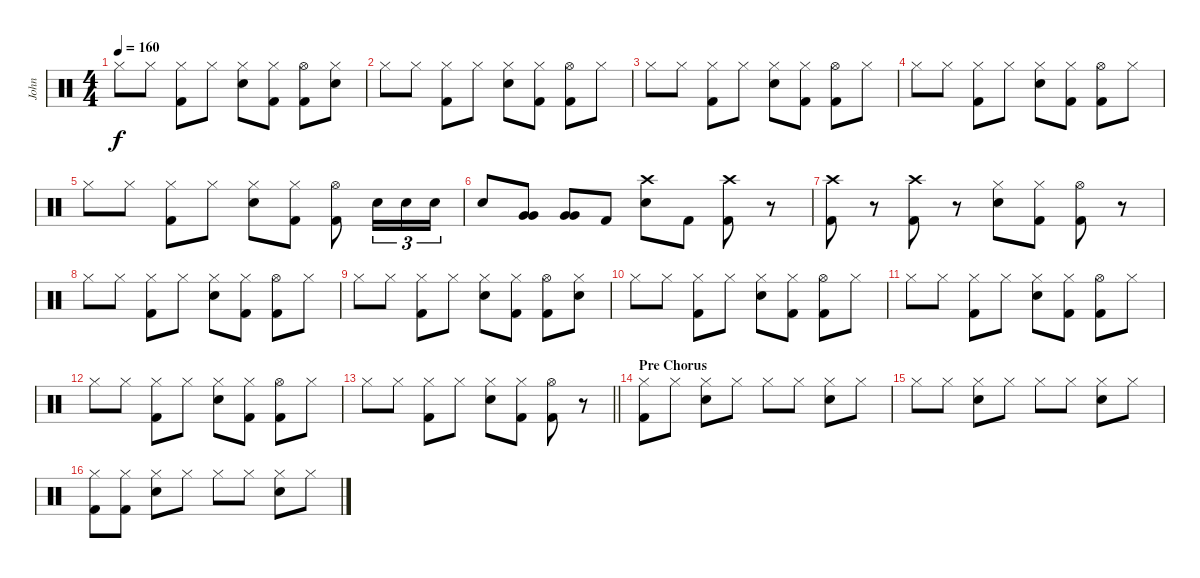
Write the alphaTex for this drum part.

\track ("John" "John") {instrument percussion}
\staff {score}
\articulation defaults
\ts (4 4)
\tempo 160
\clef neutral
\ks c "Hi-Hat (closed)".8{dy f} "Hi-Hat (closed)".8
("Hi-Hat (closed)" "Kick (hit) 2").8 "Hi-Hat (closed)".8 ("Hi-Hat (closed)" "Snare (hit) 2").8 ("Hi-Hat (closed)" "Kick (hit) 2").8 ("Hi-Hat (open)" "Kick (hit) 2").8 ("Hi-Hat (closed)" "Snare (hit) 2").8 |
"Hi-Hat (closed)".8 "Hi-Hat (closed)".8 ("Hi-Hat (closed)" "Kick (hit) 2").8 "Hi-Hat (closed)".8 ("Hi-Hat (closed)" "Snare (hit) 2").8 ("Hi-Hat (closed)" "Kick (hit) 2").8 ("Hi-Hat (open)" "Kick (hit) 2").8 "Hi-Hat (closed)".8 |
"Hi-Hat (closed)".8 "Hi-Hat (closed)".8 ("Hi-Hat (closed)" "Kick (hit) 2").8 "Hi-Hat (closed)".8 ("Hi-Hat (closed)" "Snare (hit) 2").8 ("Hi-Hat (closed)" "Kick (hit) 2").8 ("Hi-Hat (open)" "Kick (hit) 2").8 "Hi-Hat (closed)".8 |
"Hi-Hat (closed)".8 "Hi-Hat (closed)".8 ("Hi-Hat (closed)" "Kick (hit) 2").8 "Hi-Hat (closed)".8 ("Hi-Hat (closed)" "Snare (hit) 2").8 ("Hi-Hat (closed)" "Kick (hit) 2").8 ("Hi-Hat (open)" "Kick (hit) 2").8 "Hi-Hat (closed)".8 |
"Hi-Hat (closed)".8 "Hi-Hat (closed)".8 ("Hi-Hat (closed)" "Kick (hit) 2").8 "Hi-Hat (closed)".8 ("Hi-Hat (closed)" "Snare (hit) 2").8 ("Hi-Hat (closed)" "Kick (hit) 2").8 ("Hi-Hat (open)" "Kick (hit) 2").8 "Snare (hit) 2".16{tu (3 2)} "Snare (hit) 2".16{tu (3 2)} "Snare (hit) 2".16{tu (3 2)} |
"Snare (hit) 2".8 ("Very Low Tom (hit)" "Very Low Tom (hit)").8 ("Very Low Tom (hit)" "Very Low Tom (hit)").8 "Kick (hit) 2".8 ("Crash high (hit)" "Snare (hit) 2").8 "Kick (hit) 2".8 ("Crash high (hit)" "Kick (hit) 2").8 r.8 |
("Crash high (hit)" "Kick (hit) 2").8 r.8 ("Crash high (hit)" "Kick (hit) 2").8 r.8 ("Hi-Hat (closed)" "Snare (hit) 2").8 ("Hi-Hat (closed)" "Kick (hit) 2").8 ("Hi-Hat (open)" "Kick (hit) 2").8 r.8 |
"Hi-Hat (closed)".8 "Hi-Hat (closed)".8 ("Hi-Hat (closed)" "Kick (hit) 2").8 "Hi-Hat (closed)".8 ("Hi-Hat (closed)" "Snare (hit) 2").8 ("Hi-Hat (closed)" "Kick (hit) 2").8 ("Hi-Hat (open)" "Kick (hit) 2").8 "Hi-Hat (closed)".8 |
"Hi-Hat (closed)".8 "Hi-Hat (closed)".8 ("Hi-Hat (closed)" "Kick (hit) 2").8 "Hi-Hat (closed)".8 ("Hi-Hat (closed)" "Snare (hit) 2").8 ("Hi-Hat (closed)" "Kick (hit) 2").8 ("Hi-Hat (open)" "Kick (hit) 2").8 ("Hi-Hat (closed)" "Snare (hit) 2").8 |
"Hi-Hat (closed)".8 "Hi-Hat (closed)".8 ("Hi-Hat (closed)" "Kick (hit) 2").8 "Hi-Hat (closed)".8 ("Hi-Hat (closed)" "Snare (hit) 2").8 ("Hi-Hat (closed)" "Kick (hit) 2").8 ("Hi-Hat (open)" "Kick (hit) 2").8 "Hi-Hat (closed)".8 |
"Hi-Hat (closed)".8 "Hi-Hat (closed)".8 ("Hi-Hat (closed)" "Kick (hit) 2").8 "Hi-Hat (closed)".8 ("Hi-Hat (closed)" "Snare (hit) 2").8 ("Hi-Hat (closed)" "Kick (hit) 2").8 ("Hi-Hat (open)" "Kick (hit) 2").8 "Hi-Hat (closed)".8 |
"Hi-Hat (closed)".8 "Hi-Hat (closed)".8 ("Hi-Hat (closed)" "Kick (hit) 2").8 "Hi-Hat (closed)".8 ("Hi-Hat (closed)" "Snare (hit) 2").8 ("Hi-Hat (closed)" "Kick (hit) 2").8 ("Hi-Hat (open)" "Kick (hit) 2").8 "Hi-Hat (closed)".8 |
\barLineRight lightlight "Hi-Hat (closed)".8 "Hi-Hat (closed)".8
("Hi-Hat (closed)" "Kick (hit) 2").8 "Hi-Hat (closed)".8 ("Hi-Hat (closed)" "Snare (hit) 2").8 ("Hi-Hat (closed)" "Kick (hit) 2").8 ("Hi-Hat (open)" "Kick (hit) 2").8 r.8 |
\section ("" "Pre Chorus")
("Hi-Hat (closed)" "Kick (hit) 2").8 "Hi-Hat (closed)".8 ("Hi-Hat (closed)" "Snare (hit) 2").8 "Hi-Hat (closed)".8 "Hi-Hat (closed)".8 "Hi-Hat (closed)".8 ("Hi-Hat (closed)" "Snare (hit) 2").8 "Hi-Hat (closed)".8 |
"Hi-Hat (closed)".8 "Hi-Hat (closed)".8 ("Hi-Hat (closed)" "Snare (hit) 2").8 "Hi-Hat (closed)".8 "Hi-Hat (closed)".8 "Hi-Hat (closed)".8 ("Hi-Hat (closed)" "Snare (hit) 2").8 "Hi-Hat (closed)".8 |
("Hi-Hat (closed)" "Kick (hit) 2").8 ("Hi-Hat (closed)" "Kick (hit) 2").8 ("Hi-Hat (closed)" "Snare (hit) 2").8 "Hi-Hat (closed)".8 "Hi-Hat (closed)".8 "Hi-Hat (closed)".8 ("Hi-Hat (closed)" "Snare (hit) 2").8 "Hi-Hat (closed)".8
